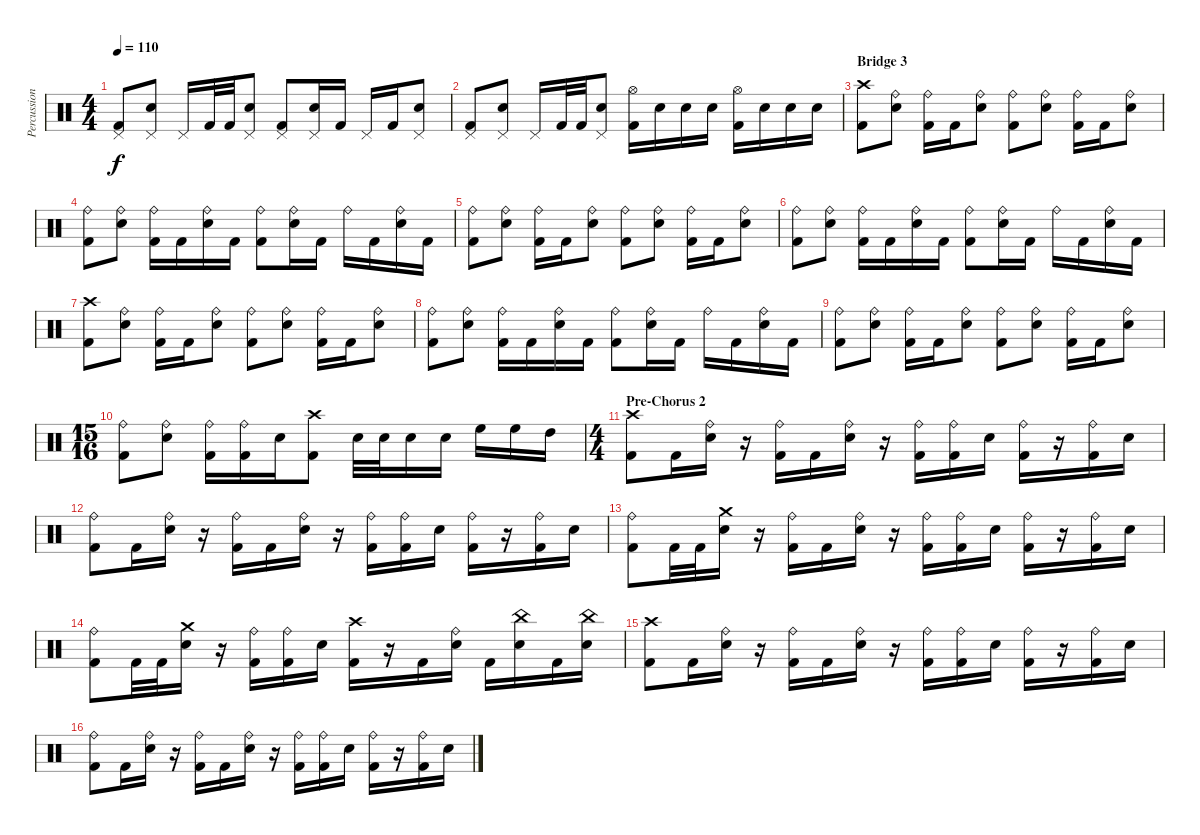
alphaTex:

\track ("Percussion" "Percussion") {instrument percussion}
\staff {score}
\articulation defaults
\ts (4 4)
\tempo 110
\clef neutral
\ks c
("Kick (hit) 2" "Pedal Hi-Hat (hit)").8{dy f} ("Electric Snare (hit)" "Pedal Hi-Hat (hit)").8 "Pedal Hi-Hat (hit)".16 "Kick (hit) 2".32 "Kick (hit) 2".32 ("Electric Snare (hit)" "Pedal Hi-Hat (hit)").8 ("Kick (hit) 2" "Pedal Hi-Hat (hit)").8 ("Electric Snare (hit)" "Pedal Hi-Hat (hit)").16 "Kick (hit) 2".16 "Pedal Hi-Hat (hit)".16 "Kick (hit) 2".16 ("Electric Snare (hit)" "Pedal Hi-Hat (hit)").8 |
("Kick (hit) 2" "Pedal Hi-Hat (hit)").8 ("Electric Snare (hit)" "Pedal Hi-Hat (hit)").8 "Pedal Hi-Hat (hit)".16 "Kick (hit) 2".32 "Kick (hit) 2".32 ("Electric Snare (hit)" "Pedal Hi-Hat (hit)").8 ("Kick (hit) 2" "Hi-Hat (open)").16 "Electric Snare (hit)".16 "Electric Snare (hit)".16 "Electric Snare (hit)".16 ("Kick (hit) 2" "Hi-Hat (open)").16 "Electric Snare (hit)".16 "Electric Snare (hit)".16 "Electric Snare (hit)".16 |
\section ("" "Bridge 3")
("Kick (hit) 2" "Crash high (hit)").8 ("Electric Snare (hit)" "Ride (bell)").8 ("Kick (hit) 2" "Ride (bell)").16 "Kick (hit) 2".16 ("Electric Snare (hit)" "Ride (bell)").8 ("Kick (hit) 2" "Ride (bell)").8 ("Electric Snare (hit)" "Ride (bell)").8 ("Kick (hit) 2" "Ride (bell)").16 "Kick (hit) 2".16 ("Electric Snare (hit)" "Ride (bell)").8 |
("Kick (hit) 2" "Ride (bell)").8 ("Electric Snare (hit)" "Ride (bell)").8 ("Kick (hit) 2" "Ride (bell)").16 "Kick (hit) 2".16 ("Electric Snare (hit)" "Ride (bell)").16 "Kick (hit) 2".16 ("Kick (hit) 2" "Ride (bell)").8 ("Electric Snare (hit)" "Ride (bell)").16 "Kick (hit) 2".16 "Ride (bell)".16 "Kick (hit) 2".16 ("Electric Snare (hit)" "Ride (bell)").16 "Kick (hit) 2".16 |
("Kick (hit) 2" "Ride (bell)").8 ("Electric Snare (hit)" "Ride (bell)").8 ("Kick (hit) 2" "Ride (bell)").16 "Kick (hit) 2".16 ("Electric Snare (hit)" "Ride (bell)").8 ("Kick (hit) 2" "Ride (bell)").8 ("Electric Snare (hit)" "Ride (bell)").8 ("Kick (hit) 2" "Ride (bell)").16 "Kick (hit) 2".16 ("Electric Snare (hit)" "Ride (bell)").8 |
("Kick (hit) 2" "Ride (bell)").8 ("Electric Snare (hit)" "Ride (bell)").8 ("Kick (hit) 2" "Ride (bell)").16 "Kick (hit) 2".16 ("Electric Snare (hit)" "Ride (bell)").16 "Kick (hit) 2".16 ("Kick (hit) 2" "Ride (bell)").8 ("Electric Snare (hit)" "Ride (bell)").16 "Kick (hit) 2".16 "Ride (bell)".16 "Kick (hit) 2".16 ("Electric Snare (hit)" "Ride (bell)").16 "Kick (hit) 2".16 |
("Kick (hit) 2" "Crash high (hit)").8 ("Electric Snare (hit)" "Ride (bell)").8 ("Kick (hit) 2" "Ride (bell)").16 "Kick (hit) 2".16 ("Electric Snare (hit)" "Ride (bell)").8 ("Kick (hit) 2" "Ride (bell)").8 ("Electric Snare (hit)" "Ride (bell)").8 ("Kick (hit) 2" "Ride (bell)").16 "Kick (hit) 2".16 ("Electric Snare (hit)" "Ride (bell)").8 |
("Kick (hit) 2" "Ride (bell)").8 ("Electric Snare (hit)" "Ride (bell)").8 ("Kick (hit) 2" "Ride (bell)").16 "Kick (hit) 2".16 ("Electric Snare (hit)" "Ride (bell)").16 "Kick (hit) 2".16 ("Kick (hit) 2" "Ride (bell)").8 ("Electric Snare (hit)" "Ride (bell)").16 "Kick (hit) 2".16 "Ride (bell)".16 "Kick (hit) 2".16 ("Electric Snare (hit)" "Ride (bell)").16 "Kick (hit) 2".16 |
("Kick (hit) 2" "Ride (bell)").8 ("Electric Snare (hit)" "Ride (bell)").8 ("Kick (hit) 2" "Ride (bell)").16 "Kick (hit) 2".16 ("Electric Snare (hit)" "Ride (bell)").8 ("Kick (hit) 2" "Ride (bell)").8 ("Electric Snare (hit)" "Ride (bell)").8 ("Kick (hit) 2" "Ride (bell)").16 "Kick (hit) 2".16 ("Electric Snare (hit)" "Ride (bell)").8 |
\ts (15 16)
("Kick (hit) 2" "Ride (bell)").8 ("Electric Snare (hit)" "Ride (bell)").8 ("Kick (hit) 2" "Ride (bell)").16 ("Kick (hit) 2" "Ride (bell)").16 "Electric Snare (hit)".16 ("Kick (hit) 2" "Crash high (hit)").8 "Electric Snare (hit)".32 "Electric Snare (hit)".32 "Electric Snare (hit)".16 "Electric Snare (hit)".16 "High Floor Tom (hit)".16 "High Floor Tom (hit)".16 "High Tom (hit)".16 |
\ts (4 4)
\section ("" "Pre-Chorus 2")
("Kick (hit) 2" "Crash high (hit)").8 "Kick (hit) 2".16 ("Electric Snare (hit)" "Ride (bell)").16 r.16 ("Kick (hit) 2" "Ride (bell)").16 "Kick (hit) 2".16 ("Electric Snare (hit)" "Ride (bell)").16 r.16 ("Kick (hit) 2" "Ride (bell)").16 ("Kick (hit) 2" "Ride (bell)").16 "Electric Snare (hit)".16 ("Kick (hit) 2" "Ride (bell)").16 r.16 ("Kick (hit) 2" "Ride (bell)").16 "Electric Snare (hit)".16 |
("Kick (hit) 2" "Ride (bell)").8 "Kick (hit) 2".16 ("Electric Snare (hit)" "Ride (bell)").16 r.16 ("Kick (hit) 2" "Ride (bell)").16 "Kick (hit) 2".16 ("Electric Snare (hit)" "Ride (bell)").16 r.16 ("Kick (hit) 2" "Ride (bell)").16 ("Kick (hit) 2" "Ride (bell)").16 "Electric Snare (hit)".16 ("Kick (hit) 2" "Ride (bell)").16 r.16 ("Kick (hit) 2" "Ride (bell)").16 "Electric Snare (hit)".16 |
("Kick (hit) 2" "Ride (bell)").8 "Kick (hit) 2".32 "Kick (hit) 2".32 ("Electric Snare (hit)" "Crash medium (hit)").16 r.16 ("Kick (hit) 2" "Ride (bell)").16 "Kick (hit) 2".16 ("Electric Snare (hit)" "Ride (bell)").16 r.16 ("Kick (hit) 2" "Ride (bell)").16 ("Kick (hit) 2" "Ride (bell)").16 "Electric Snare (hit)".16 ("Kick (hit) 2" "Ride (bell)").16 r.16 ("Kick (hit) 2" "Ride (bell)").16 "Electric Snare (hit)".16 |
("Kick (hit) 2" "Ride (bell)").8 "Kick (hit) 2".32 "Kick (hit) 2".32 ("Electric Snare (hit)" "Crash medium (hit)").16 r.16 ("Kick (hit) 2" "Ride (bell)").16 ("Kick (hit) 2" "Ride (bell)").16 "Electric Snare (hit)".16 ("Kick (hit) 2" "Crash high (hit)").16 r.16 "Kick (hit) 2".16 ("Electric Snare (hit)" "Ride (bell)").16 "Kick (hit) 2".16 ("Electric Snare (hit)" "China (hit)").16 "Kick (hit) 2".16 ("Electric Snare (hit)" "China (hit)").16 |
("Kick (hit) 2" "Crash high (hit)").8 "Kick (hit) 2".16 ("Electric Snare (hit)" "Ride (bell)").16 r.16 ("Kick (hit) 2" "Ride (bell)").16 "Kick (hit) 2".16 ("Electric Snare (hit)" "Ride (bell)").16 r.16 ("Kick (hit) 2" "Ride (bell)").16 ("Kick (hit) 2" "Ride (bell)").16 "Electric Snare (hit)".16 ("Kick (hit) 2" "Ride (bell)").16 r.16 ("Kick (hit) 2" "Ride (bell)").16 "Electric Snare (hit)".16 |
("Kick (hit) 2" "Ride (bell)").8 "Kick (hit) 2".16 ("Electric Snare (hit)" "Ride (bell)").16 r.16 ("Kick (hit) 2" "Ride (bell)").16 "Kick (hit) 2".16 ("Electric Snare (hit)" "Ride (bell)").16 r.16 ("Kick (hit) 2" "Ride (bell)").16 ("Kick (hit) 2" "Ride (bell)").16 "Electric Snare (hit)".16 ("Kick (hit) 2" "Ride (bell)").16 r.16 ("Kick (hit) 2" "Ride (bell)").16 "Electric Snare (hit)".16
